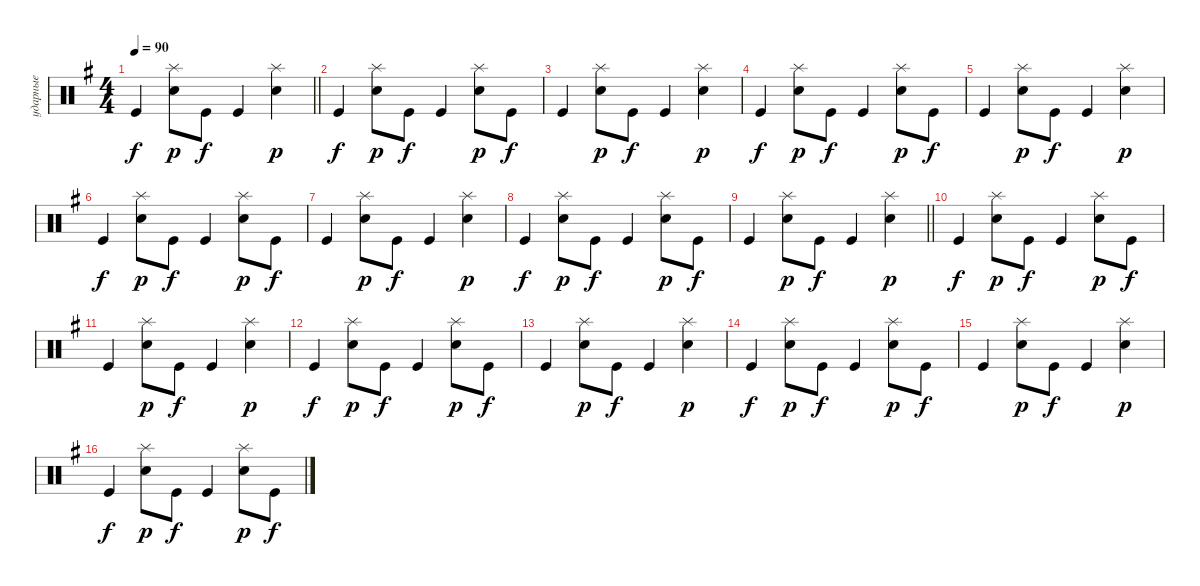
\track ("ударные" "ударные") {instrument percussion}
\staff {score}
\articulation defaults
\ts (4 4)
\tempo 90
\clef neutral
\barLineRight lightlight
\ks eminor "Kick (hit)".4{dy f}
("Splash (hit)" "Snare (hit) 2").8{dy p} "Kick (hit)".8{dy f} "Kick (hit)".4 ("Splash (hit)" "Snare (hit) 2").4{dy p} |
\section ("" "")
"Kick (hit)".4{dy f} ("Splash (hit)" "Snare (hit) 2").8{dy p} "Kick (hit)".8{dy f} "Kick (hit)".4 ("Splash (hit)" "Snare (hit) 2").8{dy p} "Kick (hit)".8{dy f} |
"Kick (hit)".4 ("Splash (hit)" "Snare (hit) 2").8{dy p} "Kick (hit)".8{dy f} "Kick (hit)".4 ("Splash (hit)" "Snare (hit) 2").4{dy p} |
"Kick (hit)".4{dy f} ("Splash (hit)" "Snare (hit) 2").8{dy p} "Kick (hit)".8{dy f} "Kick (hit)".4 ("Splash (hit)" "Snare (hit) 2").8{dy p} "Kick (hit)".8{dy f} |
"Kick (hit)".4 ("Splash (hit)" "Snare (hit) 2").8{dy p} "Kick (hit)".8{dy f} "Kick (hit)".4 ("Splash (hit)" "Snare (hit) 2").4{dy p} |
"Kick (hit)".4{dy f} ("Splash (hit)" "Snare (hit) 2").8{dy p} "Kick (hit)".8{dy f} "Kick (hit)".4 ("Splash (hit)" "Snare (hit) 2").8{dy p} "Kick (hit)".8{dy f} |
"Kick (hit)".4 ("Splash (hit)" "Snare (hit) 2").8{dy p} "Kick (hit)".8{dy f} "Kick (hit)".4 ("Splash (hit)" "Snare (hit) 2").4{dy p} |
"Kick (hit)".4{dy f} ("Splash (hit)" "Snare (hit) 2").8{dy p} "Kick (hit)".8{dy f} "Kick (hit)".4 ("Splash (hit)" "Snare (hit) 2").8{dy p} "Kick (hit)".8{dy f} |
\barLineRight lightlight "Kick (hit)".4
("Splash (hit)" "Snare (hit) 2").8{dy p} "Kick (hit)".8{dy f} "Kick (hit)".4 ("Splash (hit)" "Snare (hit) 2").4{dy p} |
\section ("" "")
"Kick (hit)".4{dy f} ("Splash (hit)" "Snare (hit) 2").8{dy p} "Kick (hit)".8{dy f} "Kick (hit)".4 ("Splash (hit)" "Snare (hit) 2").8{dy p} "Kick (hit)".8{dy f} |
"Kick (hit)".4 ("Splash (hit)" "Snare (hit) 2").8{dy p} "Kick (hit)".8{dy f} "Kick (hit)".4 ("Splash (hit)" "Snare (hit) 2").4{dy p} |
"Kick (hit)".4{dy f} ("Splash (hit)" "Snare (hit) 2").8{dy p} "Kick (hit)".8{dy f} "Kick (hit)".4 ("Splash (hit)" "Snare (hit) 2").8{dy p} "Kick (hit)".8{dy f} |
"Kick (hit)".4 ("Splash (hit)" "Snare (hit) 2").8{dy p} "Kick (hit)".8{dy f} "Kick (hit)".4 ("Splash (hit)" "Snare (hit) 2").4{dy p} |
"Kick (hit)".4{dy f} ("Splash (hit)" "Snare (hit) 2").8{dy p} "Kick (hit)".8{dy f} "Kick (hit)".4 ("Splash (hit)" "Snare (hit) 2").8{dy p} "Kick (hit)".8{dy f} |
"Kick (hit)".4 ("Splash (hit)" "Snare (hit) 2").8{dy p} "Kick (hit)".8{dy f} "Kick (hit)".4 ("Splash (hit)" "Snare (hit) 2").4{dy p} |
"Kick (hit)".4{dy f} ("Splash (hit)" "Snare (hit) 2").8{dy p} "Kick (hit)".8{dy f} "Kick (hit)".4 ("Splash (hit)" "Snare (hit) 2").8{dy p} "Kick (hit)".8{dy f}
